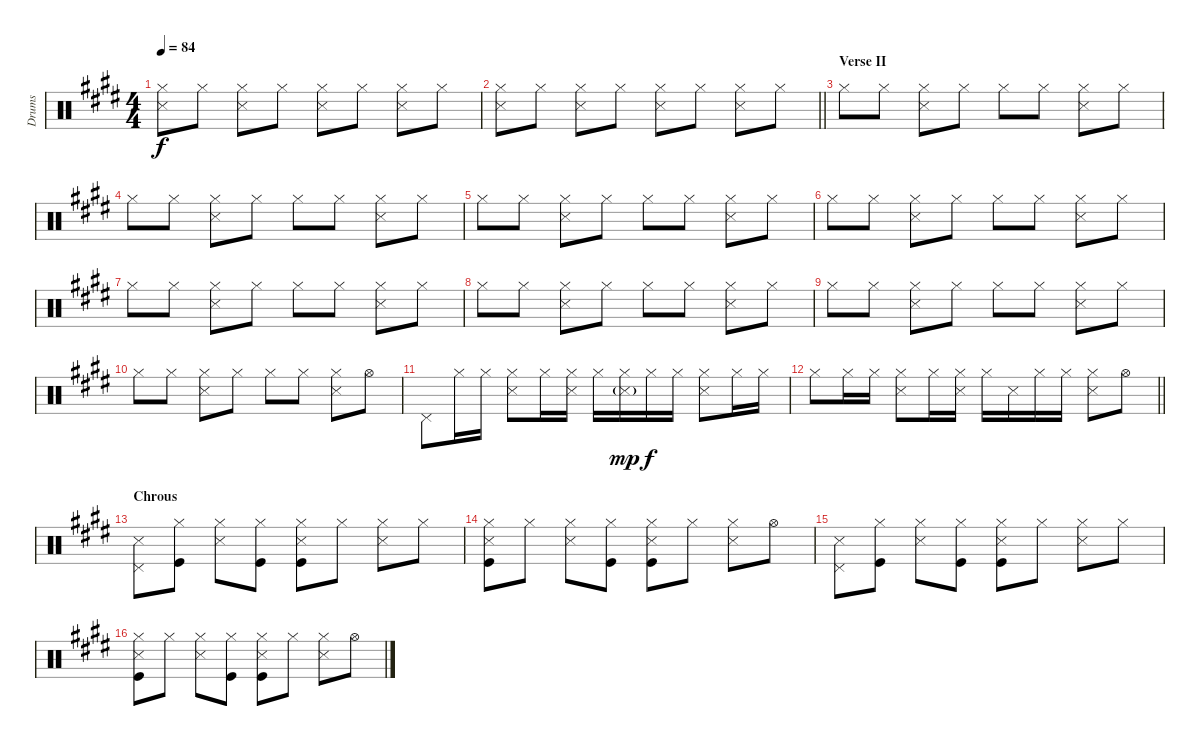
\track ("Drums" "Drums") {instrument percussion}
\staff {score}
\articulation defaults
\ts (4 4)
\tempo 84
\clef neutral
\ks c#minor
("Hi-Hat (closed)" "Snare (side stick) 3").8{dy f} "Hi-Hat (closed)".8 ("Hi-Hat (closed)" "Snare (side stick) 3").8 "Hi-Hat (closed)".8 ("Hi-Hat (closed)" "Snare (side stick) 3").8 "Hi-Hat (closed)".8 ("Hi-Hat (closed)" "Snare (side stick) 3").8 "Hi-Hat (closed)".8 |
\barLineRight lightlight
("Hi-Hat (closed)" "Snare (side stick) 3").8 "Hi-Hat (closed)".8 ("Hi-Hat (closed)" "Snare (side stick) 3").8 "Hi-Hat (closed)".8 ("Hi-Hat (closed)" "Snare (side stick) 3").8 "Hi-Hat (closed)".8 ("Hi-Hat (closed)" "Snare (side stick) 3").8 "Hi-Hat (closed)".8 |
\section ("" "Verse II")
"Hi-Hat (closed)".8 "Hi-Hat (closed)".8 ("Hi-Hat (closed)" "Snare (side stick) 3").8 "Hi-Hat (closed)".8 "Hi-Hat (closed)".8 "Hi-Hat (closed)".8 ("Hi-Hat (closed)" "Snare (side stick) 3").8 "Hi-Hat (closed)".8 |
\ks e "Hi-Hat (closed)".8 "Hi-Hat (closed)".8
("Hi-Hat (closed)" "Snare (side stick) 3").8 "Hi-Hat (closed)".8 "Hi-Hat (closed)".8 "Hi-Hat (closed)".8 ("Hi-Hat (closed)" "Snare (side stick) 3").8 "Hi-Hat (closed)".8 |
\ks c#minor "Hi-Hat (closed)".8 "Hi-Hat (closed)".8
("Hi-Hat (closed)" "Snare (side stick) 3").8 "Hi-Hat (closed)".8 "Hi-Hat (closed)".8 "Hi-Hat (closed)".8 ("Hi-Hat (closed)" "Snare (side stick) 3").8 "Hi-Hat (closed)".8 |
\ks e "Hi-Hat (closed)".8 "Hi-Hat (closed)".8
("Hi-Hat (closed)" "Snare (side stick) 3").8 "Hi-Hat (closed)".8 "Hi-Hat (closed)".8 "Hi-Hat (closed)".8 ("Hi-Hat (closed)" "Snare (side stick) 3").8 "Hi-Hat (closed)".8 |
\ks c#minor "Hi-Hat (closed)".8 "Hi-Hat (closed)".8
("Hi-Hat (closed)" "Snare (side stick) 3").8 "Hi-Hat (closed)".8 "Hi-Hat (closed)".8 "Hi-Hat (closed)".8 ("Hi-Hat (closed)" "Snare (side stick) 3").8 "Hi-Hat (closed)".8 |
\ks e "Hi-Hat (closed)".8 "Hi-Hat (closed)".8
("Hi-Hat (closed)" "Snare (side stick) 3").8 "Hi-Hat (closed)".8 "Hi-Hat (closed)".8 "Hi-Hat (closed)".8 ("Hi-Hat (closed)" "Snare (side stick) 3").8 "Hi-Hat (closed)".8 |
\ks c#minor "Hi-Hat (closed)".8 "Hi-Hat (closed)".8
("Hi-Hat (closed)" "Snare (side stick) 3").8 "Hi-Hat (closed)".8 "Hi-Hat (closed)".8 "Hi-Hat (closed)".8 ("Hi-Hat (closed)" "Snare (side stick) 3").8 "Hi-Hat (closed)".8 |
"Hi-Hat (closed)".8 "Hi-Hat (closed)".8 ("Hi-Hat (closed)" "Snare (side stick) 3").8 "Hi-Hat (closed)".8 "Hi-Hat (closed)".8 "Hi-Hat (closed)".8 ("Hi-Hat (closed)" "Snare (side stick) 3").8 "Hi-Hat (open)".8 |
\ks e "Pedal Hi-Hat (hit)".8 "Hi-Hat (closed)".16 "Hi-Hat (closed)".16
("Hi-Hat (closed)" "Snare (side stick) 3").8 "Hi-Hat (closed)".16 ("Hi-Hat (closed)" "Snare (side stick) 3").16 "Hi-Hat (closed)".16 ("Hi-Hat (closed)" "Snare (side stick) 3"{g}).16{dy mp} "Hi-Hat (closed)".16{dy f} "Hi-Hat (closed)".16 ("Hi-Hat (closed)" "Snare (side stick) 3").8 "Hi-Hat (closed)".16 "Hi-Hat (closed)".16 |
\barLineRight lightlight "Hi-Hat (closed)".8 "Hi-Hat (closed)".16 "Hi-Hat (closed)".16
("Hi-Hat (closed)" "Snare (side stick) 3").8 "Hi-Hat (closed)".16 ("Hi-Hat (closed)" "Snare (side stick) 3").16 "Hi-Hat (closed)".16 "Snare (side stick) 3".16 "Hi-Hat (closed)".16 "Hi-Hat (closed)".16 ("Hi-Hat (closed)" "Snare (side stick) 3").8 "Hi-Hat (open)".8 |
\section ("" "Chrous")
("Pedal Hi-Hat (hit)" "Snare (side stick) 3").8 ("Hi-Hat (closed)" "Kick (hit)").8 ("Hi-Hat (closed)" "Snare (side stick) 3").8 ("Hi-Hat (closed)" "Kick (hit)").8 ("Hi-Hat (closed)" "Kick (hit)" "Snare (side stick) 3").8 "Hi-Hat (closed)".8 ("Hi-Hat (closed)" "Snare (side stick) 3").8 "Hi-Hat (closed)".8 |
("Hi-Hat (closed)" "Kick (hit)" "Snare (side stick) 3").8 "Hi-Hat (closed)".8 ("Hi-Hat (closed)" "Snare (side stick) 3").8 ("Hi-Hat (closed)" "Kick (hit)").8 ("Hi-Hat (closed)" "Kick (hit)" "Snare (side stick) 3").8 "Hi-Hat (closed)".8 ("Hi-Hat (closed)" "Snare (side stick) 3").8 "Hi-Hat (open)".8 |
("Pedal Hi-Hat (hit)" "Snare (side stick) 3").8 ("Hi-Hat (closed)" "Kick (hit)").8 ("Hi-Hat (closed)" "Snare (side stick) 3").8 ("Hi-Hat (closed)" "Kick (hit)").8 ("Hi-Hat (closed)" "Kick (hit)" "Snare (side stick) 3").8 "Hi-Hat (closed)".8 ("Hi-Hat (closed)" "Snare (side stick) 3").8 "Hi-Hat (closed)".8 |
("Hi-Hat (closed)" "Kick (hit)" "Snare (side stick) 3").8 "Hi-Hat (closed)".8 ("Hi-Hat (closed)" "Snare (side stick) 3").8 ("Hi-Hat (closed)" "Kick (hit)").8 ("Hi-Hat (closed)" "Kick (hit)" "Snare (side stick) 3").8 "Hi-Hat (closed)".8 ("Hi-Hat (closed)" "Snare (side stick) 3").8 "Hi-Hat (open)".8
